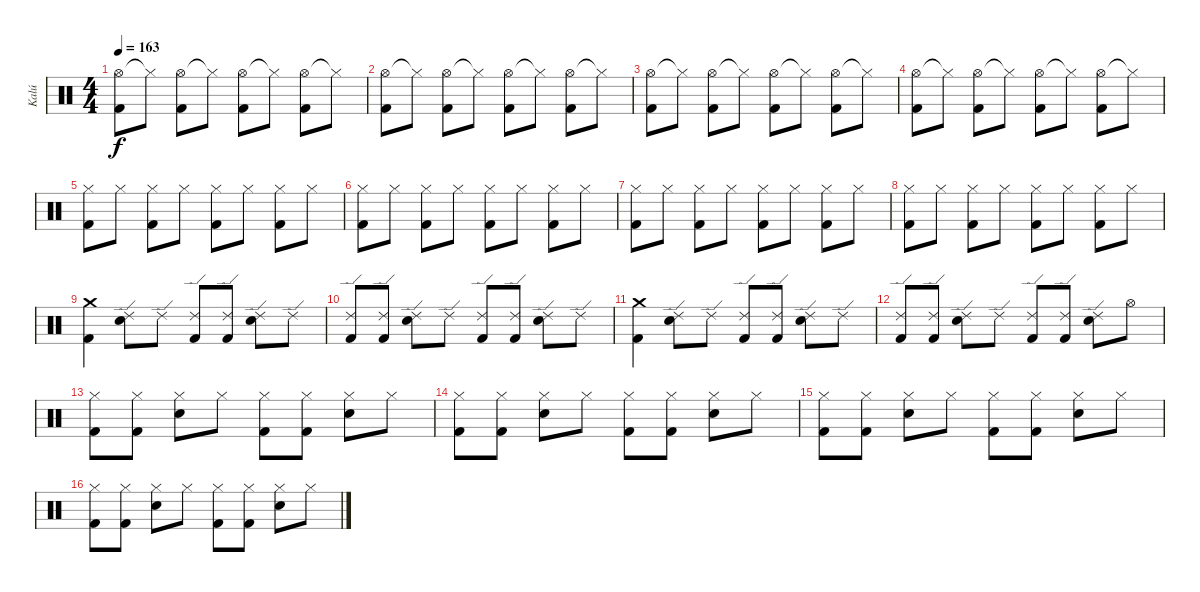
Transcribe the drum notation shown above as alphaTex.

\track ("Kalú" "Kalú") {instrument percussion}
\staff {score}
\articulation defaults
\ts (4 4)
\tempo 163
\clef neutral
\ks c
("Hi-Hat (open)" "Kick (hit) 2").8{dy f} "Hi-Hat (closed)"{t}.8 ("Hi-Hat (open)" "Kick (hit) 2").8 "Hi-Hat (closed)"{t}.8 ("Hi-Hat (open)" "Kick (hit) 2").8 "Hi-Hat (closed)"{t}.8 ("Hi-Hat (open)" "Kick (hit) 2").8 "Hi-Hat (closed)"{t}.8 |
("Hi-Hat (open)" "Kick (hit) 2").8 "Hi-Hat (closed)"{t}.8 ("Hi-Hat (open)" "Kick (hit) 2").8 "Hi-Hat (closed)"{t}.8 ("Hi-Hat (open)" "Kick (hit) 2").8 "Hi-Hat (closed)"{t}.8 ("Hi-Hat (open)" "Kick (hit) 2").8 "Hi-Hat (closed)"{t}.8 |
("Hi-Hat (open)" "Kick (hit) 2").8 "Hi-Hat (closed)"{t}.8 ("Hi-Hat (open)" "Kick (hit) 2").8 "Hi-Hat (closed)"{t}.8 ("Hi-Hat (open)" "Kick (hit) 2").8 "Hi-Hat (closed)"{t}.8 ("Hi-Hat (open)" "Kick (hit) 2").8 "Hi-Hat (closed)"{t}.8 |
("Hi-Hat (open)" "Kick (hit) 2").8 "Hi-Hat (closed)"{t}.8 ("Hi-Hat (open)" "Kick (hit) 2").8 "Hi-Hat (closed)"{t}.8 ("Hi-Hat (open)" "Kick (hit) 2").8 "Hi-Hat (closed)"{t}.8 ("Hi-Hat (open)" "Kick (hit) 2").8 "Hi-Hat (closed)"{t}.8 |
("Hi-Hat (closed)" "Kick (hit) 2").8 "Hi-Hat (closed)".8 ("Hi-Hat (closed)" "Kick (hit) 2").8 "Hi-Hat (closed)".8 ("Hi-Hat (closed)" "Kick (hit) 2").8 "Hi-Hat (closed)".8 ("Hi-Hat (closed)" "Kick (hit) 2").8 "Hi-Hat (closed)".8 |
("Hi-Hat (closed)" "Kick (hit) 2").8 "Hi-Hat (closed)".8 ("Hi-Hat (closed)" "Kick (hit) 2").8 "Hi-Hat (closed)".8 ("Hi-Hat (closed)" "Kick (hit) 2").8 "Hi-Hat (closed)".8 ("Hi-Hat (closed)" "Kick (hit) 2").8 "Hi-Hat (closed)".8 |
("Hi-Hat (closed)" "Kick (hit) 2").8 "Hi-Hat (closed)".8 ("Hi-Hat (closed)" "Kick (hit) 2").8 "Hi-Hat (closed)".8 ("Hi-Hat (closed)" "Kick (hit) 2").8 "Hi-Hat (closed)".8 ("Hi-Hat (closed)" "Kick (hit) 2").8 "Hi-Hat (closed)".8 |
("Hi-Hat (closed)" "Kick (hit) 2").8 "Hi-Hat (closed)".8 ("Hi-Hat (closed)" "Kick (hit) 2").8 "Hi-Hat (closed)".8 ("Hi-Hat (closed)" "Kick (hit) 2").8 "Hi-Hat (closed)".8 ("Hi-Hat (closed)" "Kick (hit) 2").8 "Hi-Hat (closed)".8 |
("Crash medium (hit)" "Kick (hit) 2").4 ("Ride (edge) 2" "Snare (hit) 2").8 "Ride (edge) 2".8 ("Ride (edge) 2" "Kick (hit) 2").8 ("Ride (edge) 2" "Kick (hit) 2").8 ("Ride (edge) 2" "Snare (hit) 2").8 "Ride (edge) 2".8 |
("Ride (edge) 2" "Kick (hit) 2").8 ("Ride (edge) 2" "Kick (hit) 2").8 ("Ride (edge) 2" "Snare (hit) 2").8 "Ride (edge) 2".8 ("Ride (edge) 2" "Kick (hit) 2").8 ("Ride (edge) 2" "Kick (hit) 2").8 ("Ride (edge) 2" "Snare (hit) 2").8 "Ride (edge) 2".8 |
("Crash medium (hit)" "Kick (hit) 2").4 ("Ride (edge) 2" "Snare (hit) 2").8 "Ride (edge) 2".8 ("Ride (edge) 2" "Kick (hit) 2").8 ("Ride (edge) 2" "Kick (hit) 2").8 ("Ride (edge) 2" "Snare (hit) 2").8 "Ride (edge) 2".8 |
("Ride (edge) 2" "Kick (hit) 2").8 ("Ride (edge) 2" "Kick (hit) 2").8 ("Ride (edge) 2" "Snare (hit) 2").8 "Ride (edge) 2".8 ("Ride (edge) 2" "Kick (hit) 2").8 ("Ride (edge) 2" "Kick (hit) 2").8 ("Ride (edge) 2" "Snare (hit) 2").8 "Hi-Hat (open)".8 |
("Hi-Hat (closed)" "Kick (hit) 2").8 ("Hi-Hat (closed)" "Kick (hit) 2").8 ("Hi-Hat (closed)" "Snare (hit) 2").8 "Hi-Hat (closed)".8 ("Hi-Hat (closed)" "Kick (hit) 2").8 ("Hi-Hat (closed)" "Kick (hit) 2").8 ("Hi-Hat (closed)" "Snare (hit) 2").8 "Hi-Hat (closed)".8 |
("Hi-Hat (closed)" "Kick (hit) 2").8 ("Hi-Hat (closed)" "Kick (hit) 2").8 ("Hi-Hat (closed)" "Snare (hit) 2").8 "Hi-Hat (closed)".8 ("Hi-Hat (closed)" "Kick (hit) 2").8 ("Hi-Hat (closed)" "Kick (hit) 2").8 ("Hi-Hat (closed)" "Snare (hit) 2").8 "Hi-Hat (closed)".8 |
("Hi-Hat (closed)" "Kick (hit) 2").8 ("Hi-Hat (closed)" "Kick (hit) 2").8 ("Hi-Hat (closed)" "Snare (hit) 2").8 "Hi-Hat (closed)".8 ("Hi-Hat (closed)" "Kick (hit) 2").8 ("Hi-Hat (closed)" "Kick (hit) 2").8 ("Hi-Hat (closed)" "Snare (hit) 2").8 "Hi-Hat (closed)".8 |
("Hi-Hat (closed)" "Kick (hit) 2").8 ("Hi-Hat (closed)" "Kick (hit) 2").8 ("Hi-Hat (closed)" "Snare (hit) 2").8 "Hi-Hat (closed)".8 ("Hi-Hat (closed)" "Kick (hit) 2").8 ("Hi-Hat (closed)" "Kick (hit) 2").8 ("Hi-Hat (closed)" "Snare (hit) 2").8 "Hi-Hat (closed)".8
